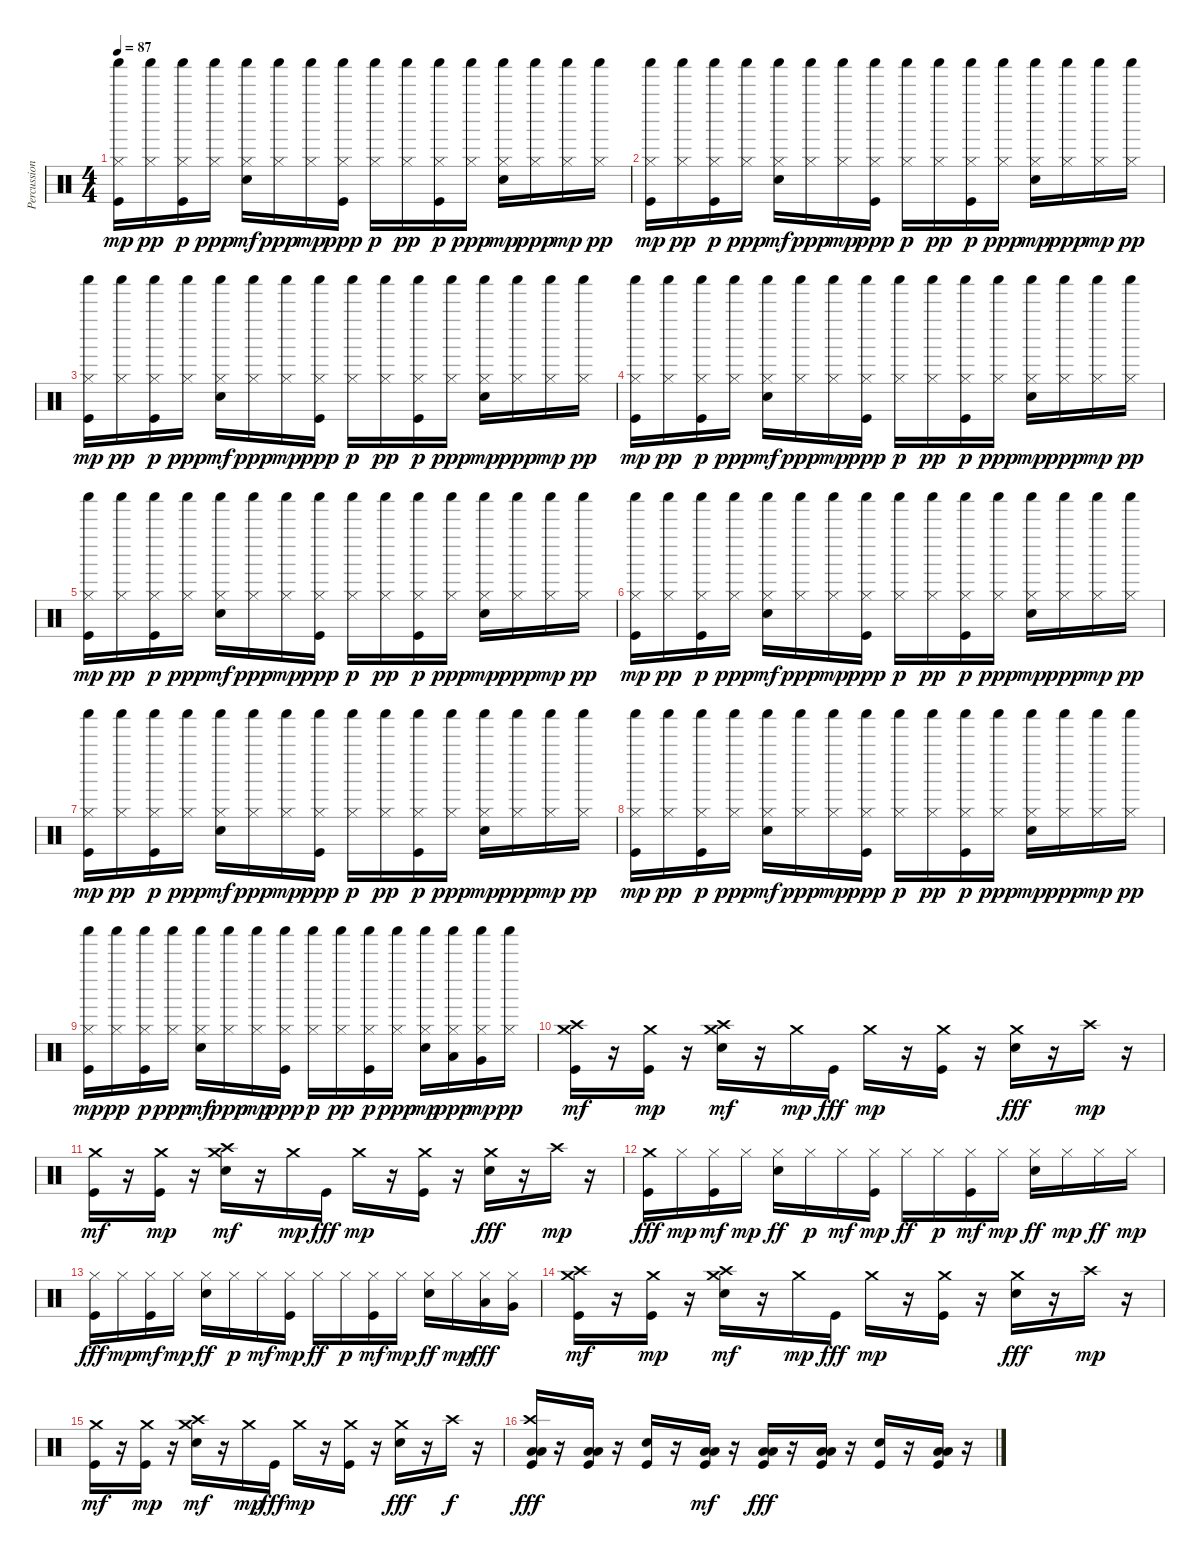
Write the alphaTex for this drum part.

\track ("Percussioni" "Percussion") {instrument percussion}
\staff {score}
\articulation defaults
\ts (4 4)
\tempo 87
\clef neutral
\ks c
("Kick (hit)" "Hi-Hat (closed)" "Shaker (hit)").16{dy mp} ("Hi-Hat (closed)" "Shaker (hit)").16{dy pp} ("Kick (hit)" "Hi-Hat (closed)" "Shaker (hit)").16{dy p} ("Hi-Hat (closed)" "Shaker (hit)").16{dy ppp} ("Electric Snare (hit)" "Hi-Hat (closed)" "Shaker (hit)").16{dy mf} ("Hi-Hat (closed)" "Shaker (hit)").16{dy ppp} ("Hi-Hat (closed)" "Shaker (hit)").16{dy mp} ("Kick (hit)" "Hi-Hat (closed)" "Shaker (hit)").16{dy ppp} ("Hi-Hat (closed)" "Shaker (hit)").16{dy p} ("Hi-Hat (closed)" "Shaker (hit)").16{dy pp} ("Kick (hit)" "Hi-Hat (closed)" "Shaker (hit)").16{dy p} ("Hi-Hat (closed)" "Shaker (hit)").16{dy ppp} ("Electric Snare (hit)" "Hi-Hat (closed)" "Shaker (hit)").16{dy mp} ("Hi-Hat (closed)" "Shaker (hit)").16{dy ppp} ("Hi-Hat (closed)" "Shaker (hit)").16{dy mp} ("Hi-Hat (closed)" "Shaker (hit)").16{dy pp} |
("Kick (hit)" "Hi-Hat (closed)" "Shaker (hit)").16{dy mp} ("Hi-Hat (closed)" "Shaker (hit)").16{dy pp} ("Kick (hit)" "Hi-Hat (closed)" "Shaker (hit)").16{dy p} ("Hi-Hat (closed)" "Shaker (hit)").16{dy ppp} ("Electric Snare (hit)" "Hi-Hat (closed)" "Shaker (hit)").16{dy mf} ("Hi-Hat (closed)" "Shaker (hit)").16{dy ppp} ("Hi-Hat (closed)" "Shaker (hit)").16{dy mp} ("Kick (hit)" "Hi-Hat (closed)" "Shaker (hit)").16{dy ppp} ("Hi-Hat (closed)" "Shaker (hit)").16{dy p} ("Hi-Hat (closed)" "Shaker (hit)").16{dy pp} ("Kick (hit)" "Hi-Hat (closed)" "Shaker (hit)").16{dy p} ("Hi-Hat (closed)" "Shaker (hit)").16{dy ppp} ("Electric Snare (hit)" "Hi-Hat (closed)" "Shaker (hit)").16{dy mp} ("Hi-Hat (closed)" "Shaker (hit)").16{dy ppp} ("Hi-Hat (closed)" "Shaker (hit)").16{dy mp} ("Hi-Hat (closed)" "Shaker (hit)").16{dy pp} |
("Kick (hit)" "Hi-Hat (closed)" "Shaker (hit)").16{dy mp} ("Hi-Hat (closed)" "Shaker (hit)").16{dy pp} ("Kick (hit)" "Hi-Hat (closed)" "Shaker (hit)").16{dy p} ("Hi-Hat (closed)" "Shaker (hit)").16{dy ppp} ("Electric Snare (hit)" "Hi-Hat (closed)" "Shaker (hit)").16{dy mf} ("Hi-Hat (closed)" "Shaker (hit)").16{dy ppp} ("Hi-Hat (closed)" "Shaker (hit)").16{dy mp} ("Kick (hit)" "Hi-Hat (closed)" "Shaker (hit)").16{dy ppp} ("Hi-Hat (closed)" "Shaker (hit)").16{dy p} ("Hi-Hat (closed)" "Shaker (hit)").16{dy pp} ("Kick (hit)" "Hi-Hat (closed)" "Shaker (hit)").16{dy p} ("Hi-Hat (closed)" "Shaker (hit)").16{dy ppp} ("Electric Snare (hit)" "Hi-Hat (closed)" "Shaker (hit)").16{dy mp} ("Hi-Hat (closed)" "Shaker (hit)").16{dy ppp} ("Hi-Hat (closed)" "Shaker (hit)").16{dy mp} ("Hi-Hat (closed)" "Shaker (hit)").16{dy pp} |
("Kick (hit)" "Hi-Hat (closed)" "Shaker (hit)").16{dy mp} ("Hi-Hat (closed)" "Shaker (hit)").16{dy pp} ("Kick (hit)" "Hi-Hat (closed)" "Shaker (hit)").16{dy p} ("Hi-Hat (closed)" "Shaker (hit)").16{dy ppp} ("Electric Snare (hit)" "Hi-Hat (closed)" "Shaker (hit)").16{dy mf} ("Hi-Hat (closed)" "Shaker (hit)").16{dy ppp} ("Hi-Hat (closed)" "Shaker (hit)").16{dy mp} ("Kick (hit)" "Hi-Hat (closed)" "Shaker (hit)").16{dy ppp} ("Hi-Hat (closed)" "Shaker (hit)").16{dy p} ("Hi-Hat (closed)" "Shaker (hit)").16{dy pp} ("Kick (hit)" "Hi-Hat (closed)" "Shaker (hit)").16{dy p} ("Hi-Hat (closed)" "Shaker (hit)").16{dy ppp} ("Electric Snare (hit)" "Hi-Hat (closed)" "Shaker (hit)").16{dy mp} ("Hi-Hat (closed)" "Shaker (hit)").16{dy ppp} ("Hi-Hat (closed)" "Shaker (hit)").16{dy mp} ("Hi-Hat (closed)" "Shaker (hit)").16{dy pp} |
("Kick (hit)" "Hi-Hat (closed)" "Shaker (hit)").16{dy mp} ("Hi-Hat (closed)" "Shaker (hit)").16{dy pp} ("Kick (hit)" "Hi-Hat (closed)" "Shaker (hit)").16{dy p} ("Hi-Hat (closed)" "Shaker (hit)").16{dy ppp} ("Electric Snare (hit)" "Hi-Hat (closed)" "Shaker (hit)").16{dy mf} ("Hi-Hat (closed)" "Shaker (hit)").16{dy ppp} ("Hi-Hat (closed)" "Shaker (hit)").16{dy mp} ("Kick (hit)" "Hi-Hat (closed)" "Shaker (hit)").16{dy ppp} ("Hi-Hat (closed)" "Shaker (hit)").16{dy p} ("Hi-Hat (closed)" "Shaker (hit)").16{dy pp} ("Kick (hit)" "Hi-Hat (closed)" "Shaker (hit)").16{dy p} ("Hi-Hat (closed)" "Shaker (hit)").16{dy ppp} ("Electric Snare (hit)" "Hi-Hat (closed)" "Shaker (hit)").16{dy mp} ("Hi-Hat (closed)" "Shaker (hit)").16{dy ppp} ("Hi-Hat (closed)" "Shaker (hit)").16{dy mp} ("Hi-Hat (closed)" "Shaker (hit)").16{dy pp} |
("Kick (hit)" "Hi-Hat (closed)" "Shaker (hit)").16{dy mp} ("Hi-Hat (closed)" "Shaker (hit)").16{dy pp} ("Kick (hit)" "Hi-Hat (closed)" "Shaker (hit)").16{dy p} ("Hi-Hat (closed)" "Shaker (hit)").16{dy ppp} ("Electric Snare (hit)" "Hi-Hat (closed)" "Shaker (hit)").16{dy mf} ("Hi-Hat (closed)" "Shaker (hit)").16{dy ppp} ("Hi-Hat (closed)" "Shaker (hit)").16{dy mp} ("Kick (hit)" "Hi-Hat (closed)" "Shaker (hit)").16{dy ppp} ("Hi-Hat (closed)" "Shaker (hit)").16{dy p} ("Hi-Hat (closed)" "Shaker (hit)").16{dy pp} ("Kick (hit)" "Hi-Hat (closed)" "Shaker (hit)").16{dy p} ("Hi-Hat (closed)" "Shaker (hit)").16{dy ppp} ("Electric Snare (hit)" "Hi-Hat (closed)" "Shaker (hit)").16{dy mp} ("Hi-Hat (closed)" "Shaker (hit)").16{dy ppp} ("Hi-Hat (closed)" "Shaker (hit)").16{dy mp} ("Hi-Hat (closed)" "Shaker (hit)").16{dy pp} |
("Kick (hit)" "Hi-Hat (closed)" "Shaker (hit)").16{dy mp} ("Hi-Hat (closed)" "Shaker (hit)").16{dy pp} ("Kick (hit)" "Hi-Hat (closed)" "Shaker (hit)").16{dy p} ("Hi-Hat (closed)" "Shaker (hit)").16{dy ppp} ("Electric Snare (hit)" "Hi-Hat (closed)" "Shaker (hit)").16{dy mf} ("Hi-Hat (closed)" "Shaker (hit)").16{dy ppp} ("Hi-Hat (closed)" "Shaker (hit)").16{dy mp} ("Kick (hit)" "Hi-Hat (closed)" "Shaker (hit)").16{dy ppp} ("Hi-Hat (closed)" "Shaker (hit)").16{dy p} ("Hi-Hat (closed)" "Shaker (hit)").16{dy pp} ("Kick (hit)" "Hi-Hat (closed)" "Shaker (hit)").16{dy p} ("Hi-Hat (closed)" "Shaker (hit)").16{dy ppp} ("Electric Snare (hit)" "Hi-Hat (closed)" "Shaker (hit)").16{dy mp} ("Hi-Hat (closed)" "Shaker (hit)").16{dy ppp} ("Hi-Hat (closed)" "Shaker (hit)").16{dy mp} ("Hi-Hat (closed)" "Shaker (hit)").16{dy pp} |
("Kick (hit)" "Hi-Hat (closed)" "Shaker (hit)").16{dy mp} ("Hi-Hat (closed)" "Shaker (hit)").16{dy pp} ("Kick (hit)" "Hi-Hat (closed)" "Shaker (hit)").16{dy p} ("Hi-Hat (closed)" "Shaker (hit)").16{dy ppp} ("Electric Snare (hit)" "Hi-Hat (closed)" "Shaker (hit)").16{dy mf} ("Hi-Hat (closed)" "Shaker (hit)").16{dy ppp} ("Hi-Hat (closed)" "Shaker (hit)").16{dy mp} ("Kick (hit)" "Hi-Hat (closed)" "Shaker (hit)").16{dy ppp} ("Hi-Hat (closed)" "Shaker (hit)").16{dy p} ("Hi-Hat (closed)" "Shaker (hit)").16{dy pp} ("Kick (hit)" "Hi-Hat (closed)" "Shaker (hit)").16{dy p} ("Hi-Hat (closed)" "Shaker (hit)").16{dy ppp} ("Electric Snare (hit)" "Hi-Hat (closed)" "Shaker (hit)").16{dy mp} ("Hi-Hat (closed)" "Shaker (hit)").16{dy ppp} ("Hi-Hat (closed)" "Shaker (hit)").16{dy mp} ("Hi-Hat (closed)" "Shaker (hit)").16{dy pp} |
("Kick (hit)" "Hi-Hat (closed)" "Shaker (hit)").16{dy mp} ("Hi-Hat (closed)" "Shaker (hit)").16{dy pp} ("Kick (hit)" "Hi-Hat (closed)" "Shaker (hit)").16{dy p} ("Hi-Hat (closed)" "Shaker (hit)").16{dy ppp} ("Electric Snare (hit)" "Hi-Hat (closed)" "Shaker (hit)").16{dy mf} ("Hi-Hat (closed)" "Shaker (hit)").16{dy ppp} ("Hi-Hat (closed)" "Shaker (hit)").16{dy mp} ("Kick (hit)" "Hi-Hat (closed)" "Shaker (hit)").16{dy ppp} ("Hi-Hat (closed)" "Shaker (hit)").16{dy p} ("Hi-Hat (closed)" "Shaker (hit)").16{dy pp} ("Kick (hit)" "Hi-Hat (closed)" "Shaker (hit)").16{dy p} ("Hi-Hat (closed)" "Shaker (hit)").16{dy ppp} ("Electric Snare (hit)" "Hi-Hat (closed)" "Shaker (hit)").16{dy mp} ("Hi-Hat (closed)" "Low Tom (hit)" "Shaker (hit)").16{dy ppp} ("Hi-Hat (closed)" "Very Low Tom (hit)" "Shaker (hit)").16{dy mp} ("Hi-Hat (closed)" "Shaker (hit)").16{dy pp} |
("Kick (hit)" "Crash high (hit)" "Crash medium (hit)").16{dy mf} r.16 ("Kick (hit)" "Crash medium (hit)").16{dy mp} r.16 ("Electric Snare (hit)" "Crash high (hit)" "Crash medium (hit)").16{dy mf} r.16 "Crash medium (hit)".16{dy mp} "Kick (hit)".16{dy fff} "Crash medium (hit)".16{dy mp} r.16 ("Kick (hit)" "Crash medium (hit)").16 r.16 ("Electric Snare (hit)" "Crash medium (hit)").16{dy fff} r.16 "Crash high (hit)".16{dy mp} r.16 |
("Kick (hit)" "Crash medium (hit)").16{dy mf} r.16 ("Kick (hit)" "Crash medium (hit)").16{dy mp} r.16 ("Electric Snare (hit)" "Crash high (hit)" "Crash medium (hit)").16{dy mf} r.16 "Crash medium (hit)".16{dy mp} "Kick (hit)".16{dy fff} "Crash medium (hit)".16{dy mp} r.16 ("Kick (hit)" "Crash medium (hit)").16 r.16 ("Electric Snare (hit)" "Crash medium (hit)").16{dy fff} r.16 "Crash high (hit)".16{dy mp} r.16 |
("Kick (hit)" "Crash medium (hit)").16{dy fff} "Hi-Hat (closed)".16{dy mp} ("Kick (hit)" "Hi-Hat (closed)").16{dy mf} "Hi-Hat (closed)".16{dy mp} ("Electric Snare (hit)" "Hi-Hat (closed)").16{dy ff} "Hi-Hat (closed)".16{dy p} "Hi-Hat (closed)".16{dy mf} ("Kick (hit)" "Hi-Hat (closed)").16{dy mp} "Hi-Hat (closed)".16{dy ff} "Hi-Hat (closed)".16{dy p} ("Kick (hit)" "Hi-Hat (closed)").16{dy mf} "Hi-Hat (closed)".16{dy mp} ("Electric Snare (hit)" "Hi-Hat (closed)").16{dy ff} "Hi-Hat (closed)".16{dy mp} "Hi-Hat (closed)".16{dy ff} "Hi-Hat (closed)".16{dy mp} |
("Kick (hit)" "Hi-Hat (closed)").16{dy fff} "Hi-Hat (closed)".16{dy mp} ("Kick (hit)" "Hi-Hat (closed)").16{dy mf} "Hi-Hat (closed)".16{dy mp} ("Electric Snare (hit)" "Hi-Hat (closed)").16{dy ff} "Hi-Hat (closed)".16{dy p} "Hi-Hat (closed)".16{dy mf} ("Kick (hit)" "Hi-Hat (closed)").16{dy mp} "Hi-Hat (closed)".16{dy ff} "Hi-Hat (closed)".16{dy p} ("Kick (hit)" "Hi-Hat (closed)").16{dy mf} "Hi-Hat (closed)".16{dy mp} ("Electric Snare (hit)" "Hi-Hat (closed)").16{dy ff} "Hi-Hat (closed)".16{dy mp} ("Hi-Hat (closed)" "Low Tom (hit)").16{dy fff} ("Hi-Hat (closed)" "Very Low Tom (hit)").16 |
("Kick (hit)" "Crash high (hit)" "Crash medium (hit)").16{dy mf} r.16 ("Kick (hit)" "Crash medium (hit)").16{dy mp} r.16 ("Electric Snare (hit)" "Crash high (hit)" "Crash medium (hit)").16{dy mf} r.16 "Crash medium (hit)".16{dy mp} "Kick (hit)".16{dy fff} "Crash medium (hit)".16{dy mp} r.16 ("Kick (hit)" "Crash medium (hit)").16 r.16 ("Electric Snare (hit)" "Crash medium (hit)").16{dy fff} r.16 "Crash high (hit)".16{dy mp} r.16 |
("Kick (hit)" "Crash medium (hit)").16{dy mf} r.16 ("Kick (hit)" "Crash medium (hit)").16{dy mp} r.16 ("Electric Snare (hit)" "Crash high (hit)" "Crash medium (hit)").16{dy mf} r.16 "Crash medium (hit)".16{dy mp} "Kick (hit)".16{dy fff} "Crash medium (hit)".16{dy mp} r.16 ("Kick (hit)" "Crash medium (hit)").16 r.16 ("Electric Snare (hit)" "Crash medium (hit)").16{dy fff} r.16 "Crash high (hit)".16{dy f} r.16 |
("Kick (hit)" "Low Floor Tom (hit)" "Low Tom (hit)" "Crash high (hit)").16{dy fff} r.16 ("Kick (hit)" "Low Floor Tom (hit)" "Low Tom (hit)").16 r.16 ("Kick (hit)" "Electric Snare (hit)").16 r.16 ("Kick (hit)" "Low Floor Tom (hit)" "Low Tom (hit)").16{dy mf} r.16 ("Kick (hit)" "Low Floor Tom (hit)" "Low Tom (hit)").16{dy fff} r.16 ("Kick (hit)" "Low Floor Tom (hit)" "Low Tom (hit)").16 r.16 ("Kick (hit)" "Electric Snare (hit)").16 r.16 ("Kick (hit)" "Low Floor Tom (hit)" "Low Tom (hit)").16 r.16
